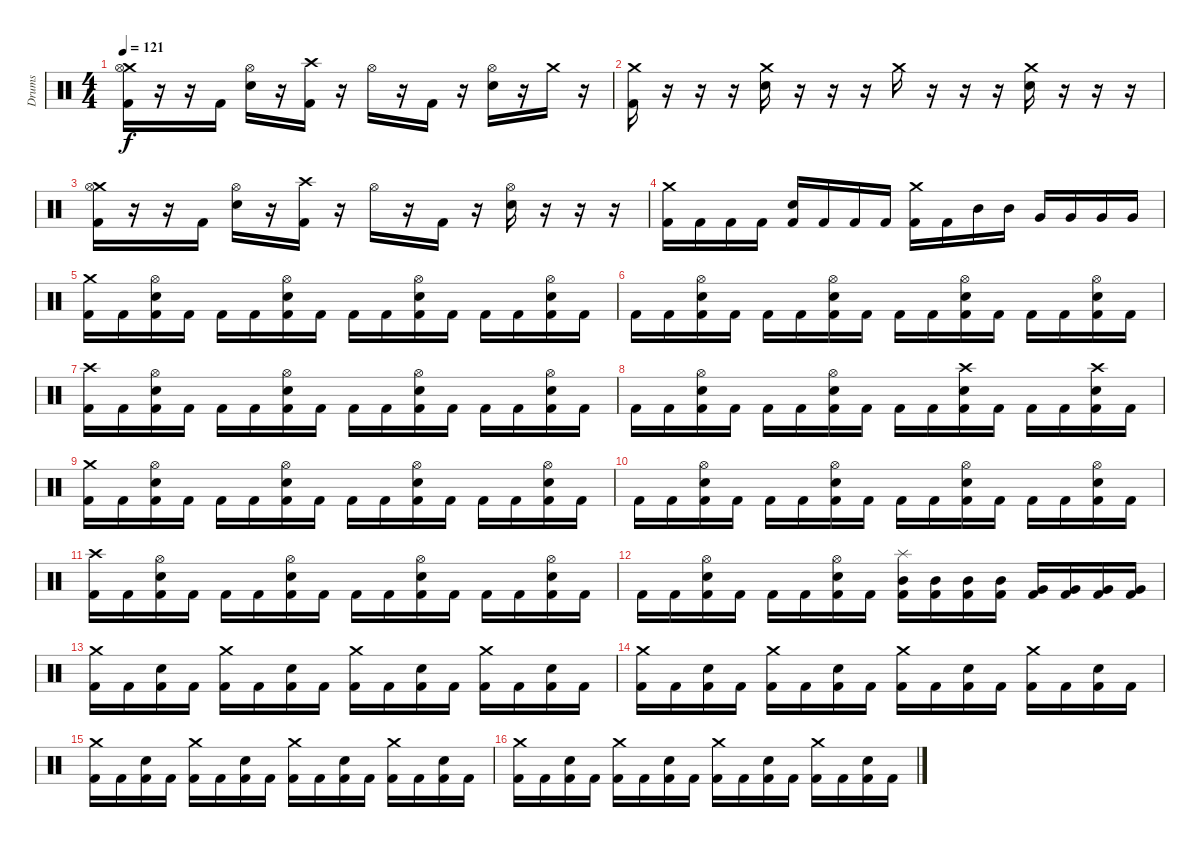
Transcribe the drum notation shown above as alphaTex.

\track ("Drums" "Drums") {instrument percussion}
\staff {score}
\articulation defaults
\ts (4 4)
\tempo 121
\clef neutral
\ks c
("Crash medium (hit)" "Hi-Hat (open)" "Kick (hit) 2").16{dy f} r.16 r.16 "Kick (hit) 2".16 ("Hi-Hat (open)" "Electric Snare (hit)").16 r.16 ("Crash high (hit)" "Kick (hit) 2").16 r.16 "Hi-Hat (open)".16 r.16 "Kick (hit) 2".16 r.16 ("Hi-Hat (open)" "Electric Snare (hit)").16 r.16 "Crash medium (hit)".16 r.16 |
("Crash medium (hit)" "Kick (hit) 2").16 r.16 r.16 r.16 ("Crash medium (hit)" "Electric Snare (hit)").16 r.16 r.16 r.16 "Crash medium (hit)".16 r.16 r.16 r.16 ("Crash medium (hit)" "Electric Snare (hit)").16 r.16 r.16 r.16 |
("Crash medium (hit)" "Hi-Hat (open)" "Kick (hit) 2").16 r.16 r.16 "Kick (hit) 2".16 ("Hi-Hat (open)" "Electric Snare (hit)").16 r.16 ("Crash high (hit)" "Kick (hit) 2").16 r.16 "Hi-Hat (open)".16 r.16 "Kick (hit) 2".16 r.16 ("Hi-Hat (open)" "Electric Snare (hit)").16 r.16 r.16 r.16 |
("Crash medium (hit)" "Kick (hit) 2").16 "Kick (hit) 2".16 "Kick (hit) 2".16 "Kick (hit) 2".16 ("Electric Snare (hit)" "Kick (hit) 2").16 "Kick (hit) 2".16 "Kick (hit) 2".16 "Kick (hit) 2".16 ("Crash medium (hit)" "Kick (hit) 2").16 "Kick (hit) 2".16 "Mid Tom (hit)".16 "Mid Tom (hit)".16 "Very Low Tom (hit)".16 "Very Low Tom (hit)".16 "Very Low Tom (hit)".16 "Very Low Tom (hit)".16 |
("Crash medium (hit)" "Kick (hit) 2").16 "Kick (hit) 2".16 ("Hi-Hat (open)" "Electric Snare (hit)" "Kick (hit) 2").16 "Kick (hit) 2".16 "Kick (hit) 2".16 "Kick (hit) 2".16 ("Hi-Hat (open)" "Electric Snare (hit)" "Kick (hit) 2").16 "Kick (hit) 2".16 "Kick (hit) 2".16 "Kick (hit) 2".16 ("Hi-Hat (open)" "Electric Snare (hit)" "Kick (hit) 2").16 "Kick (hit) 2".16 "Kick (hit) 2".16 "Kick (hit) 2".16 ("Hi-Hat (open)" "Electric Snare (hit)" "Kick (hit) 2").16 "Kick (hit) 2".16 |
"Kick (hit) 2".16 "Kick (hit) 2".16 ("Hi-Hat (open)" "Electric Snare (hit)" "Kick (hit) 2").16 "Kick (hit) 2".16 "Kick (hit) 2".16 "Kick (hit) 2".16 ("Hi-Hat (open)" "Electric Snare (hit)" "Kick (hit) 2").16 "Kick (hit) 2".16 "Kick (hit) 2".16 "Kick (hit) 2".16 ("Hi-Hat (open)" "Electric Snare (hit)" "Kick (hit) 2").16 "Kick (hit) 2".16 "Kick (hit) 2".16 "Kick (hit) 2".16 ("Hi-Hat (open)" "Electric Snare (hit)" "Kick (hit) 2").16 "Kick (hit) 2".16 |
("Crash high (hit)" "Kick (hit) 2").16 "Kick (hit) 2".16 ("Hi-Hat (open)" "Electric Snare (hit)" "Kick (hit) 2").16 "Kick (hit) 2".16 "Kick (hit) 2".16 "Kick (hit) 2".16 ("Hi-Hat (open)" "Electric Snare (hit)" "Kick (hit) 2").16 "Kick (hit) 2".16 "Kick (hit) 2".16 "Kick (hit) 2".16 ("Hi-Hat (open)" "Electric Snare (hit)" "Kick (hit) 2").16 "Kick (hit) 2".16 "Kick (hit) 2".16 "Kick (hit) 2".16 ("Hi-Hat (open)" "Electric Snare (hit)" "Kick (hit) 2").16 "Kick (hit) 2".16 |
"Kick (hit) 2".16 "Kick (hit) 2".16 ("Hi-Hat (open)" "Electric Snare (hit)" "Kick (hit) 2").16 "Kick (hit) 2".16 "Kick (hit) 2".16 "Kick (hit) 2".16 ("Hi-Hat (open)" "Electric Snare (hit)" "Kick (hit) 2").16 "Kick (hit) 2".16 "Kick (hit) 2".16 "Kick (hit) 2".16 ("Crash high (hit)" "Electric Snare (hit)" "Kick (hit) 2").16 "Kick (hit) 2".16 "Kick (hit) 2".16 "Kick (hit) 2".16 ("Crash high (hit)" "Electric Snare (hit)" "Kick (hit) 2").16 "Kick (hit) 2".16 |
("Crash medium (hit)" "Kick (hit) 2").16 "Kick (hit) 2".16 ("Hi-Hat (open)" "Electric Snare (hit)" "Kick (hit) 2").16 "Kick (hit) 2".16 "Kick (hit) 2".16 "Kick (hit) 2".16 ("Hi-Hat (open)" "Electric Snare (hit)" "Kick (hit) 2").16 "Kick (hit) 2".16 "Kick (hit) 2".16 "Kick (hit) 2".16 ("Hi-Hat (open)" "Electric Snare (hit)" "Kick (hit) 2").16 "Kick (hit) 2".16 "Kick (hit) 2".16 "Kick (hit) 2".16 ("Hi-Hat (open)" "Electric Snare (hit)" "Kick (hit) 2").16 "Kick (hit) 2".16 |
"Kick (hit) 2".16 "Kick (hit) 2".16 ("Hi-Hat (open)" "Electric Snare (hit)" "Kick (hit) 2").16 "Kick (hit) 2".16 "Kick (hit) 2".16 "Kick (hit) 2".16 ("Hi-Hat (open)" "Electric Snare (hit)" "Kick (hit) 2").16 "Kick (hit) 2".16 "Kick (hit) 2".16 "Kick (hit) 2".16 ("Hi-Hat (open)" "Electric Snare (hit)" "Kick (hit) 2").16 "Kick (hit) 2".16 "Kick (hit) 2".16 "Kick (hit) 2".16 ("Hi-Hat (open)" "Electric Snare (hit)" "Kick (hit) 2").16 "Kick (hit) 2".16 |
("Crash high (hit)" "Kick (hit) 2").16 "Kick (hit) 2".16 ("Hi-Hat (open)" "Electric Snare (hit)" "Kick (hit) 2").16 "Kick (hit) 2".16 "Kick (hit) 2".16 "Kick (hit) 2".16 ("Hi-Hat (open)" "Electric Snare (hit)" "Kick (hit) 2").16 "Kick (hit) 2".16 "Kick (hit) 2".16 "Kick (hit) 2".16 ("Hi-Hat (open)" "Electric Snare (hit)" "Kick (hit) 2").16 "Kick (hit) 2".16 "Kick (hit) 2".16 "Kick (hit) 2".16 ("Hi-Hat (open)" "Electric Snare (hit)" "Kick (hit) 2").16 "Kick (hit) 2".16 |
"Kick (hit) 2".16 "Kick (hit) 2".16 ("Hi-Hat (open)" "Electric Snare (hit)" "Kick (hit) 2").16 "Kick (hit) 2".16 "Kick (hit) 2".16 "Kick (hit) 2".16 ("Hi-Hat (open)" "Electric Snare (hit)" "Kick (hit) 2").16 "Kick (hit) 2".16 ("Splash (hit)" "Mid Tom (hit)" "Kick (hit) 2").16 ("Mid Tom (hit)" "Kick (hit) 2").16 ("Mid Tom (hit)" "Kick (hit) 2").16 ("Mid Tom (hit)" "Kick (hit) 2").16 ("Very Low Tom (hit)" "Kick (hit) 2").16 ("Very Low Tom (hit)" "Kick (hit) 2").16 ("Very Low Tom (hit)" "Kick (hit) 2").16 ("Very Low Tom (hit)" "Kick (hit) 2").16 |
("Crash medium (hit)" "Kick (hit) 2").16 "Kick (hit) 2".16 ("Electric Snare (hit)" "Kick (hit) 2").16 "Kick (hit) 2".16 ("Crash medium (hit)" "Kick (hit) 2").16 "Kick (hit) 2".16 ("Electric Snare (hit)" "Kick (hit) 2").16 "Kick (hit) 2".16 ("Crash medium (hit)" "Kick (hit) 2").16 "Kick (hit) 2".16 ("Electric Snare (hit)" "Kick (hit) 2").16 "Kick (hit) 2".16 ("Crash medium (hit)" "Kick (hit) 2").16 "Kick (hit) 2".16 ("Electric Snare (hit)" "Kick (hit) 2").16 "Kick (hit) 2".16 |
("Crash medium (hit)" "Kick (hit) 2").16 "Kick (hit) 2".16 ("Electric Snare (hit)" "Kick (hit) 2").16 "Kick (hit) 2".16 ("Crash medium (hit)" "Kick (hit) 2").16 "Kick (hit) 2".16 ("Electric Snare (hit)" "Kick (hit) 2").16 "Kick (hit) 2".16 ("Crash medium (hit)" "Kick (hit) 2").16 "Kick (hit) 2".16 ("Electric Snare (hit)" "Kick (hit) 2").16 "Kick (hit) 2".16 ("Crash medium (hit)" "Kick (hit) 2").16 "Kick (hit) 2".16 ("Electric Snare (hit)" "Kick (hit) 2").16 "Kick (hit) 2".16 |
("Crash medium (hit)" "Kick (hit) 2").16 "Kick (hit) 2".16 ("Electric Snare (hit)" "Kick (hit) 2").16 "Kick (hit) 2".16 ("Crash medium (hit)" "Kick (hit) 2").16 "Kick (hit) 2".16 ("Electric Snare (hit)" "Kick (hit) 2").16 "Kick (hit) 2".16 ("Crash medium (hit)" "Kick (hit) 2").16 "Kick (hit) 2".16 ("Electric Snare (hit)" "Kick (hit) 2").16 "Kick (hit) 2".16 ("Crash medium (hit)" "Kick (hit) 2").16 "Kick (hit) 2".16 ("Electric Snare (hit)" "Kick (hit) 2").16 "Kick (hit) 2".16 |
("Crash medium (hit)" "Kick (hit) 2").16 "Kick (hit) 2".16 ("Electric Snare (hit)" "Kick (hit) 2").16 "Kick (hit) 2".16 ("Crash medium (hit)" "Kick (hit) 2").16 "Kick (hit) 2".16 ("Electric Snare (hit)" "Kick (hit) 2").16 "Kick (hit) 2".16 ("Crash medium (hit)" "Kick (hit) 2").16 "Kick (hit) 2".16 ("Electric Snare (hit)" "Kick (hit) 2").16 "Kick (hit) 2".16 ("Crash medium (hit)" "Kick (hit) 2").16 "Kick (hit) 2".16 ("Electric Snare (hit)" "Kick (hit) 2").16 "Kick (hit) 2".16
